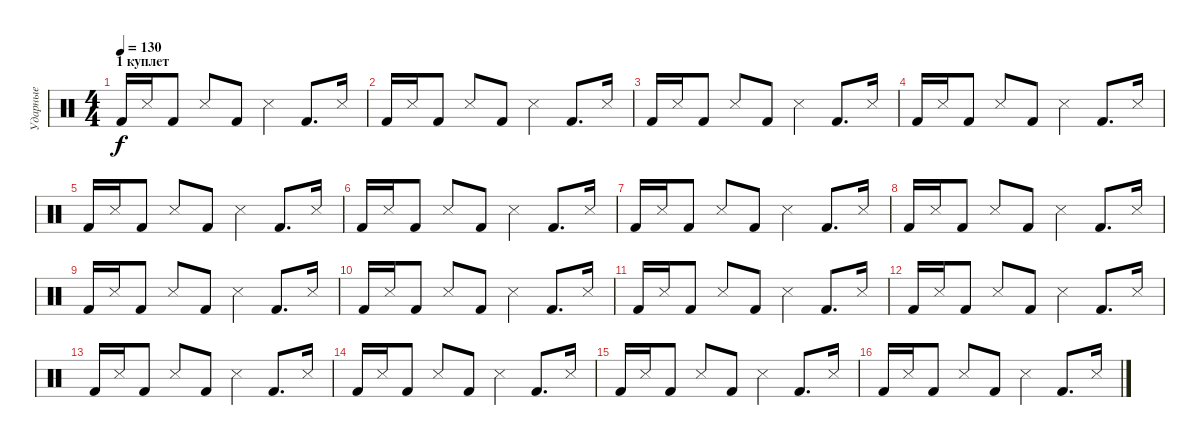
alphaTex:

\track ("Ударные" "Ударные") {instrument percussion}
\staff {score}
\articulation defaults
\ts (4 4)
\section ("" "1 куплет")
\tempo 130
\clef neutral
\ks c "Kick (hit) 2".16{dy f} "Snare (side stick) 3".16 "Kick (hit) 2".8 "Snare (side stick) 3".8 "Kick (hit) 2".8 "Snare (side stick) 3".4 "Kick (hit) 2".8{d} "Snare (side stick) 3".16
|
"Kick (hit) 2".16 "Snare (side stick) 3".16 "Kick (hit) 2".8 "Snare (side stick) 3".8 "Kick (hit) 2".8 "Snare (side stick) 3".4 "Kick (hit) 2".8{d} "Snare (side stick) 3".16 |
"Kick (hit) 2".16 "Snare (side stick) 3".16 "Kick (hit) 2".8 "Snare (side stick) 3".8 "Kick (hit) 2".8 "Snare (side stick) 3".4 "Kick (hit) 2".8{d} "Snare (side stick) 3".16 |
"Kick (hit) 2".16 "Snare (side stick) 3".16 "Kick (hit) 2".8 "Snare (side stick) 3".8 "Kick (hit) 2".8 "Snare (side stick) 3".4 "Kick (hit) 2".8{d} "Snare (side stick) 3".16 |
"Kick (hit) 2".16 "Snare (side stick) 3".16 "Kick (hit) 2".8 "Snare (side stick) 3".8 "Kick (hit) 2".8 "Snare (side stick) 3".4 "Kick (hit) 2".8{d} "Snare (side stick) 3".16 |
"Kick (hit) 2".16 "Snare (side stick) 3".16 "Kick (hit) 2".8 "Snare (side stick) 3".8 "Kick (hit) 2".8 "Snare (side stick) 3".4 "Kick (hit) 2".8{d} "Snare (side stick) 3".16 |
"Kick (hit) 2".16 "Snare (side stick) 3".16 "Kick (hit) 2".8 "Snare (side stick) 3".8 "Kick (hit) 2".8 "Snare (side stick) 3".4 "Kick (hit) 2".8{d} "Snare (side stick) 3".16 |
"Kick (hit) 2".16 "Snare (side stick) 3".16 "Kick (hit) 2".8 "Snare (side stick) 3".8 "Kick (hit) 2".8 "Snare (side stick) 3".4 "Kick (hit) 2".8{d} "Snare (side stick) 3".16 |
"Kick (hit) 2".16 "Snare (side stick) 3".16 "Kick (hit) 2".8 "Snare (side stick) 3".8 "Kick (hit) 2".8 "Snare (side stick) 3".4 "Kick (hit) 2".8{d} "Snare (side stick) 3".16 |
"Kick (hit) 2".16 "Snare (side stick) 3".16 "Kick (hit) 2".8 "Snare (side stick) 3".8 "Kick (hit) 2".8 "Snare (side stick) 3".4 "Kick (hit) 2".8{d} "Snare (side stick) 3".16 |
"Kick (hit) 2".16 "Snare (side stick) 3".16 "Kick (hit) 2".8 "Snare (side stick) 3".8 "Kick (hit) 2".8 "Snare (side stick) 3".4 "Kick (hit) 2".8{d} "Snare (side stick) 3".16 |
"Kick (hit) 2".16 "Snare (side stick) 3".16 "Kick (hit) 2".8 "Snare (side stick) 3".8 "Kick (hit) 2".8 "Snare (side stick) 3".4 "Kick (hit) 2".8{d} "Snare (side stick) 3".16 |
"Kick (hit) 2".16 "Snare (side stick) 3".16 "Kick (hit) 2".8 "Snare (side stick) 3".8 "Kick (hit) 2".8 "Snare (side stick) 3".4 "Kick (hit) 2".8{d} "Snare (side stick) 3".16 |
"Kick (hit) 2".16 "Snare (side stick) 3".16 "Kick (hit) 2".8 "Snare (side stick) 3".8 "Kick (hit) 2".8 "Snare (side stick) 3".4 "Kick (hit) 2".8{d} "Snare (side stick) 3".16 |
"Kick (hit) 2".16 "Snare (side stick) 3".16 "Kick (hit) 2".8 "Snare (side stick) 3".8 "Kick (hit) 2".8 "Snare (side stick) 3".4 "Kick (hit) 2".8{d} "Snare (side stick) 3".16 |
"Kick (hit) 2".16 "Snare (side stick) 3".16 "Kick (hit) 2".8 "Snare (side stick) 3".8 "Kick (hit) 2".8 "Snare (side stick) 3".4 "Kick (hit) 2".8{d} "Snare (side stick) 3".16
